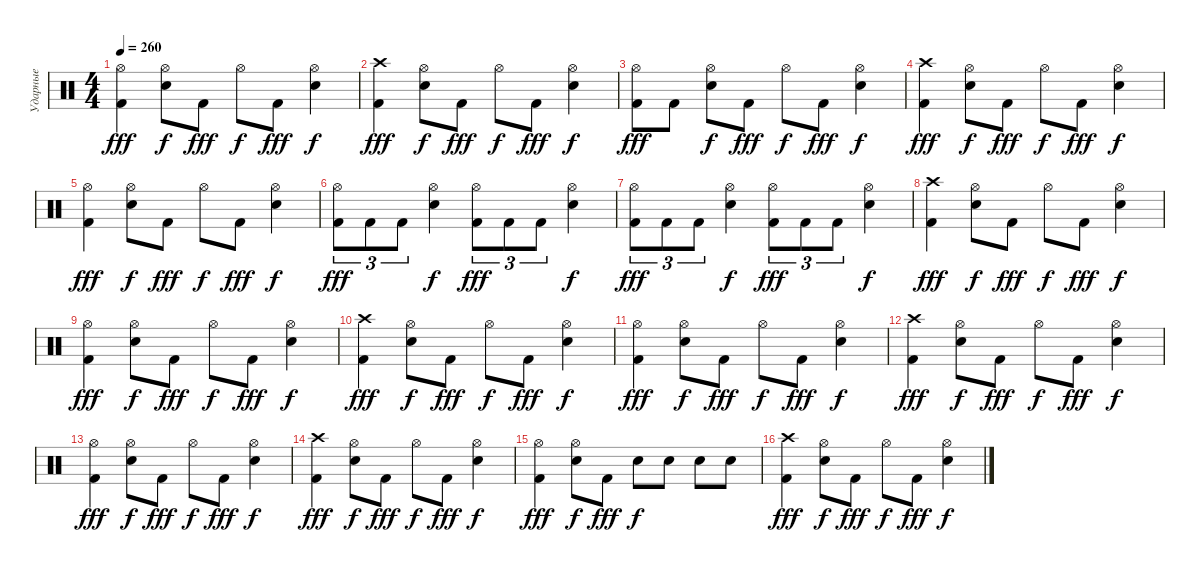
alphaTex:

\track ("Ударные" "Ударные") {instrument percussion}
\staff {score}
\articulation defaults
\ts (4 4)
\tempo 260
\clef neutral
\ks c
("Kick (hit) 2" "Hi-Hat (open)").4{dy fff} ("Snare (hit) 2" "Hi-Hat (open)").8{dy f} "Kick (hit) 2".8{dy fff} "Hi-Hat (open)".8{dy f} "Kick (hit) 2".8{dy fff} ("Snare (hit) 2" "Hi-Hat (open)").4{dy f} |
("Kick (hit) 2" "Crash high (hit)").4{dy fff} ("Snare (hit) 2" "Hi-Hat (open)").8{dy f} "Kick (hit) 2".8{dy fff} "Hi-Hat (open)".8{dy f} "Kick (hit) 2".8{dy fff} ("Snare (hit) 2" "Hi-Hat (open)").4{dy f} |
("Kick (hit) 2" "Hi-Hat (open)").8{dy fff} "Kick (hit) 2".8 ("Snare (hit) 2" "Hi-Hat (open)").8{dy f} "Kick (hit) 2".8{dy fff} "Hi-Hat (open)".8{dy f} "Kick (hit) 2".8{dy fff} ("Snare (hit) 2" "Hi-Hat (open)").4{dy f} |
("Kick (hit) 2" "Crash high (hit)").4{dy fff} ("Snare (hit) 2" "Hi-Hat (open)").8{dy f} "Kick (hit) 2".8{dy fff} "Hi-Hat (open)".8{dy f} "Kick (hit) 2".8{dy fff} ("Snare (hit) 2" "Hi-Hat (open)").4{dy f} |
("Kick (hit) 2" "Hi-Hat (open)").4{dy fff} ("Snare (hit) 2" "Hi-Hat (open)").8{dy f} "Kick (hit) 2".8{dy fff} "Hi-Hat (open)".8{dy f} "Kick (hit) 2".8{dy fff} ("Snare (hit) 2" "Hi-Hat (open)").4{dy f} |
("Kick (hit) 2" "Hi-Hat (open)").8{tu (3 2) dy fff} "Kick (hit) 2".8{tu (3 2)} "Kick (hit) 2".8{tu (3 2)} ("Snare (hit) 2" "Hi-Hat (open)").4{dy f} ("Kick (hit) 2" "Hi-Hat (open)").8{tu (3 2) dy fff} "Kick (hit) 2".8{tu (3 2)} "Kick (hit) 2".8{tu (3 2)} ("Snare (hit) 2" "Hi-Hat (open)").4{dy f} |
("Kick (hit) 2" "Hi-Hat (open)").8{tu (3 2) dy fff} "Kick (hit) 2".8{tu (3 2)} "Kick (hit) 2".8{tu (3 2)} ("Snare (hit) 2" "Hi-Hat (open)").4{dy f} ("Kick (hit) 2" "Hi-Hat (open)").8{tu (3 2) dy fff} "Kick (hit) 2".8{tu (3 2)} "Kick (hit) 2".8{tu (3 2)} ("Snare (hit) 2" "Hi-Hat (open)").4{dy f} |
("Kick (hit) 2" "Crash high (hit)").4{dy fff} ("Snare (hit) 2" "Hi-Hat (open)").8{dy f} "Kick (hit) 2".8{dy fff} "Hi-Hat (open)".8{dy f} "Kick (hit) 2".8{dy fff} ("Snare (hit) 2" "Hi-Hat (open)").4{dy f} |
("Kick (hit) 2" "Hi-Hat (open)").4{dy fff} ("Snare (hit) 2" "Hi-Hat (open)").8{dy f} "Kick (hit) 2".8{dy fff} "Hi-Hat (open)".8{dy f} "Kick (hit) 2".8{dy fff} ("Snare (hit) 2" "Hi-Hat (open)").4{dy f} |
("Kick (hit) 2" "Crash high (hit)").4{dy fff} ("Snare (hit) 2" "Hi-Hat (open)").8{dy f} "Kick (hit) 2".8{dy fff} "Hi-Hat (open)".8{dy f} "Kick (hit) 2".8{dy fff} ("Snare (hit) 2" "Hi-Hat (open)").4{dy f} |
("Kick (hit) 2" "Hi-Hat (open)").4{dy fff} ("Snare (hit) 2" "Hi-Hat (open)").8{dy f} "Kick (hit) 2".8{dy fff} "Hi-Hat (open)".8{dy f} "Kick (hit) 2".8{dy fff} ("Snare (hit) 2" "Hi-Hat (open)").4{dy f} |
("Kick (hit) 2" "Crash high (hit)").4{dy fff} ("Snare (hit) 2" "Hi-Hat (open)").8{dy f} "Kick (hit) 2".8{dy fff} "Hi-Hat (open)".8{dy f} "Kick (hit) 2".8{dy fff} ("Snare (hit) 2" "Hi-Hat (open)").4{dy f} |
("Kick (hit) 2" "Hi-Hat (open)").4{dy fff} ("Snare (hit) 2" "Hi-Hat (open)").8{dy f} "Kick (hit) 2".8{dy fff} "Hi-Hat (open)".8{dy f} "Kick (hit) 2".8{dy fff} ("Snare (hit) 2" "Hi-Hat (open)").4{dy f} |
("Kick (hit) 2" "Crash high (hit)").4{dy fff} ("Snare (hit) 2" "Hi-Hat (open)").8{dy f} "Kick (hit) 2".8{dy fff} "Hi-Hat (open)".8{dy f} "Kick (hit) 2".8{dy fff} ("Snare (hit) 2" "Hi-Hat (open)").4{dy f} |
("Kick (hit) 2" "Hi-Hat (open)").4{dy fff} ("Snare (hit) 2" "Hi-Hat (open)").8{dy f} "Kick (hit) 2".8{dy fff} "Snare (hit) 2".8{dy f} "Snare (hit) 2".8 "Snare (hit) 2".8 "Snare (hit) 2".8 |
("Kick (hit) 2" "Crash high (hit)").4{dy fff} ("Snare (hit) 2" "Hi-Hat (open)").8{dy f} "Kick (hit) 2".8{dy fff} "Hi-Hat (open)".8{dy f} "Kick (hit) 2".8{dy fff} ("Snare (hit) 2" "Hi-Hat (open)").4{dy f}
